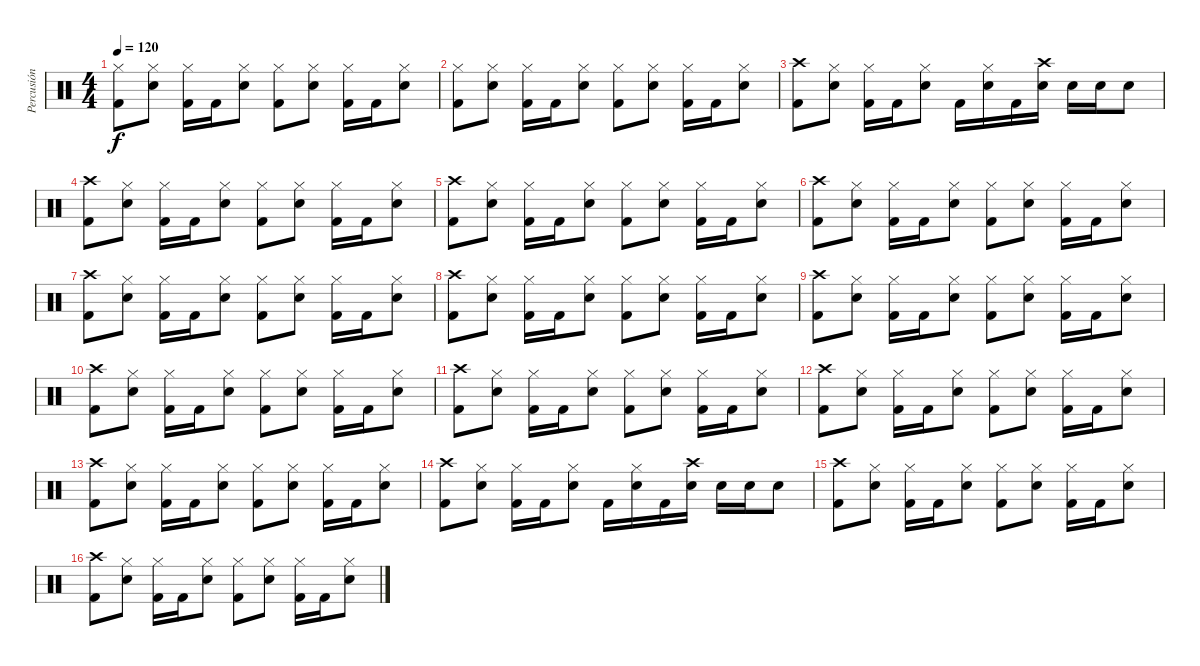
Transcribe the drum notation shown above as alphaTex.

\track ("Percusión" "Percusión") {instrument percussion}
\staff {score}
\articulation defaults
\ts (4 4)
\tempo 120
\clef neutral
\ks c
("Kick (hit) 2" "Hi-Hat (closed)").8{dy f} ("Snare (hit) 2" "Hi-Hat (closed)").8 ("Kick (hit) 2" "Hi-Hat (closed)").16 "Kick (hit) 2".16 ("Snare (hit) 2" "Hi-Hat (closed)").8 ("Kick (hit) 2" "Hi-Hat (closed)").8 ("Snare (hit) 2" "Hi-Hat (closed)").8 ("Kick (hit) 2" "Hi-Hat (closed)").16 "Kick (hit) 2".16 ("Snare (hit) 2" "Hi-Hat (closed)").8 |
("Kick (hit) 2" "Hi-Hat (closed)").8 ("Snare (hit) 2" "Hi-Hat (closed)").8 ("Kick (hit) 2" "Hi-Hat (closed)").16 "Kick (hit) 2".16 ("Snare (hit) 2" "Hi-Hat (closed)").8 ("Kick (hit) 2" "Hi-Hat (closed)").8 ("Snare (hit) 2" "Hi-Hat (closed)").8 ("Kick (hit) 2" "Hi-Hat (closed)").16 "Kick (hit) 2".16 ("Snare (hit) 2" "Hi-Hat (closed)").8 |
("Kick (hit) 2" "Crash high (hit)").8 ("Snare (hit) 2" "Hi-Hat (closed)").8 ("Kick (hit) 2" "Hi-Hat (closed)").16 "Kick (hit) 2".16 ("Snare (hit) 2" "Hi-Hat (closed)").8 "Kick (hit) 2".16 ("Snare (hit) 2" "Hi-Hat (closed)").16 "Kick (hit) 2".16 ("Snare (hit) 2" "Crash high (hit)").16 "Snare (hit) 2".16 "Snare (hit) 2".16 "Snare (hit) 2".8 |
("Kick (hit) 2" "Crash high (hit)").8 ("Snare (hit) 2" "Hi-Hat (closed)").8 ("Kick (hit) 2" "Hi-Hat (closed)").16 "Kick (hit) 2".16 ("Snare (hit) 2" "Hi-Hat (closed)").8 ("Kick (hit) 2" "Hi-Hat (closed)").8 ("Snare (hit) 2" "Hi-Hat (closed)").8 ("Kick (hit) 2" "Hi-Hat (closed)").16 "Kick (hit) 2".16 ("Snare (hit) 2" "Hi-Hat (closed)").8 |
("Kick (hit) 2" "Crash high (hit)").8 ("Snare (hit) 2" "Hi-Hat (closed)").8 ("Kick (hit) 2" "Hi-Hat (closed)").16 "Kick (hit) 2".16 ("Snare (hit) 2" "Hi-Hat (closed)").8 ("Kick (hit) 2" "Hi-Hat (closed)").8 ("Snare (hit) 2" "Hi-Hat (closed)").8 ("Kick (hit) 2" "Hi-Hat (closed)").16 "Kick (hit) 2".16 ("Snare (hit) 2" "Hi-Hat (closed)").8 |
("Kick (hit) 2" "Crash high (hit)").8 ("Snare (hit) 2" "Hi-Hat (closed)").8 ("Kick (hit) 2" "Hi-Hat (closed)").16 "Kick (hit) 2".16 ("Snare (hit) 2" "Hi-Hat (closed)").8 ("Kick (hit) 2" "Hi-Hat (closed)").8 ("Snare (hit) 2" "Hi-Hat (closed)").8 ("Kick (hit) 2" "Hi-Hat (closed)").16 "Kick (hit) 2".16 ("Snare (hit) 2" "Hi-Hat (closed)").8 |
("Kick (hit) 2" "Crash high (hit)").8 ("Snare (hit) 2" "Hi-Hat (closed)").8 ("Kick (hit) 2" "Hi-Hat (closed)").16 "Kick (hit) 2".16 ("Snare (hit) 2" "Hi-Hat (closed)").8 ("Kick (hit) 2" "Hi-Hat (closed)").8 ("Snare (hit) 2" "Hi-Hat (closed)").8 ("Kick (hit) 2" "Hi-Hat (closed)").16 "Kick (hit) 2".16 ("Snare (hit) 2" "Hi-Hat (closed)").8 |
("Kick (hit) 2" "Crash high (hit)").8 ("Snare (hit) 2" "Hi-Hat (closed)").8 ("Kick (hit) 2" "Hi-Hat (closed)").16 "Kick (hit) 2".16 ("Snare (hit) 2" "Hi-Hat (closed)").8 ("Kick (hit) 2" "Hi-Hat (closed)").8 ("Snare (hit) 2" "Hi-Hat (closed)").8 ("Kick (hit) 2" "Hi-Hat (closed)").16 "Kick (hit) 2".16 ("Snare (hit) 2" "Hi-Hat (closed)").8 |
("Kick (hit) 2" "Crash high (hit)").8 ("Snare (hit) 2" "Hi-Hat (closed)").8 ("Kick (hit) 2" "Hi-Hat (closed)").16 "Kick (hit) 2".16 ("Snare (hit) 2" "Hi-Hat (closed)").8 ("Kick (hit) 2" "Hi-Hat (closed)").8 ("Snare (hit) 2" "Hi-Hat (closed)").8 ("Kick (hit) 2" "Hi-Hat (closed)").16 "Kick (hit) 2".16 ("Snare (hit) 2" "Hi-Hat (closed)").8 |
("Kick (hit) 2" "Crash high (hit)").8 ("Snare (hit) 2" "Hi-Hat (closed)").8 ("Kick (hit) 2" "Hi-Hat (closed)").16 "Kick (hit) 2".16 ("Snare (hit) 2" "Hi-Hat (closed)").8 ("Kick (hit) 2" "Hi-Hat (closed)").8 ("Snare (hit) 2" "Hi-Hat (closed)").8 ("Kick (hit) 2" "Hi-Hat (closed)").16 "Kick (hit) 2".16 ("Snare (hit) 2" "Hi-Hat (closed)").8 |
("Kick (hit) 2" "Crash high (hit)").8 ("Snare (hit) 2" "Hi-Hat (closed)").8 ("Kick (hit) 2" "Hi-Hat (closed)").16 "Kick (hit) 2".16 ("Snare (hit) 2" "Hi-Hat (closed)").8 ("Kick (hit) 2" "Hi-Hat (closed)").8 ("Snare (hit) 2" "Hi-Hat (closed)").8 ("Kick (hit) 2" "Hi-Hat (closed)").16 "Kick (hit) 2".16 ("Snare (hit) 2" "Hi-Hat (closed)").8 |
("Kick (hit) 2" "Crash high (hit)").8 ("Snare (hit) 2" "Hi-Hat (closed)").8 ("Kick (hit) 2" "Hi-Hat (closed)").16 "Kick (hit) 2".16 ("Snare (hit) 2" "Hi-Hat (closed)").8 ("Kick (hit) 2" "Hi-Hat (closed)").8 ("Snare (hit) 2" "Hi-Hat (closed)").8 ("Kick (hit) 2" "Hi-Hat (closed)").16 "Kick (hit) 2".16 ("Snare (hit) 2" "Hi-Hat (closed)").8 |
("Kick (hit) 2" "Crash high (hit)").8 ("Snare (hit) 2" "Hi-Hat (closed)").8 ("Kick (hit) 2" "Hi-Hat (closed)").16 "Kick (hit) 2".16 ("Snare (hit) 2" "Hi-Hat (closed)").8 ("Kick (hit) 2" "Hi-Hat (closed)").8 ("Snare (hit) 2" "Hi-Hat (closed)").8 ("Kick (hit) 2" "Hi-Hat (closed)").16 "Kick (hit) 2".16 ("Snare (hit) 2" "Hi-Hat (closed)").8 |
("Kick (hit) 2" "Crash high (hit)").8 ("Snare (hit) 2" "Hi-Hat (closed)").8 ("Kick (hit) 2" "Hi-Hat (closed)").16 "Kick (hit) 2".16 ("Snare (hit) 2" "Hi-Hat (closed)").8 "Kick (hit) 2".16 ("Snare (hit) 2" "Hi-Hat (closed)").16 "Kick (hit) 2".16 ("Snare (hit) 2" "Crash high (hit)").16 "Snare (hit) 2".16 "Snare (hit) 2".16 "Snare (hit) 2".8 |
("Kick (hit) 2" "Crash high (hit)").8 ("Snare (hit) 2" "Hi-Hat (closed)").8 ("Kick (hit) 2" "Hi-Hat (closed)").16 "Kick (hit) 2".16 ("Snare (hit) 2" "Hi-Hat (closed)").8 ("Kick (hit) 2" "Hi-Hat (closed)").8 ("Snare (hit) 2" "Hi-Hat (closed)").8 ("Kick (hit) 2" "Hi-Hat (closed)").16 "Kick (hit) 2".16 ("Snare (hit) 2" "Hi-Hat (closed)").8 |
("Kick (hit) 2" "Crash high (hit)").8 ("Snare (hit) 2" "Hi-Hat (closed)").8 ("Kick (hit) 2" "Hi-Hat (closed)").16 "Kick (hit) 2".16 ("Snare (hit) 2" "Hi-Hat (closed)").8 ("Kick (hit) 2" "Hi-Hat (closed)").8 ("Snare (hit) 2" "Hi-Hat (closed)").8 ("Kick (hit) 2" "Hi-Hat (closed)").16 "Kick (hit) 2".16 ("Snare (hit) 2" "Hi-Hat (closed)").8
